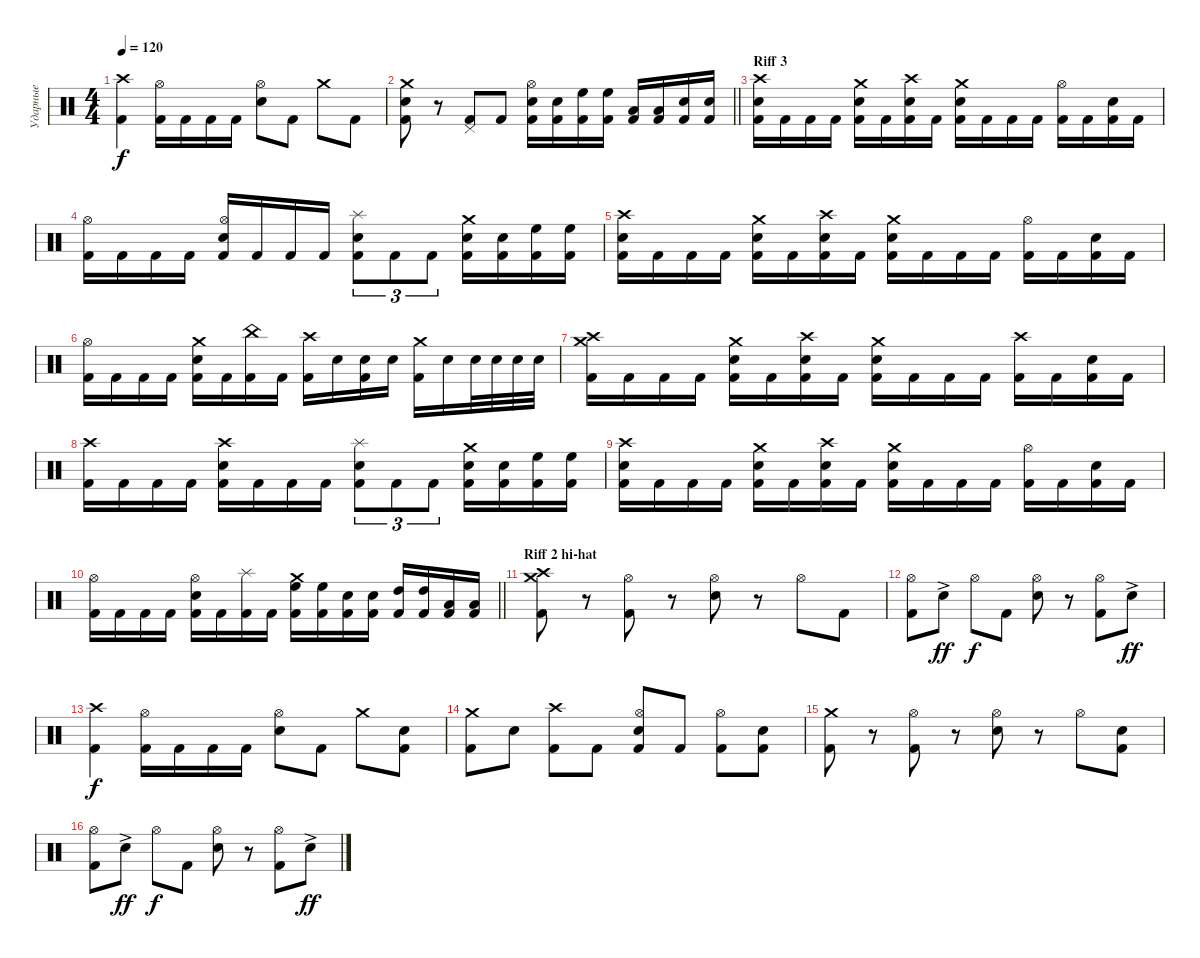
\track ("Ударные" "Ударные") {instrument percussion}
\staff {score}
\articulation defaults
\ts (4 4)
\tempo 120
\clef neutral
\ks c
("Crash high (hit)" "Kick (hit) 2").4{dy f} ("Hi-Hat (open)" "Kick (hit) 2").16 "Kick (hit) 2".16 "Kick (hit) 2".16 "Kick (hit) 2".16 ("Hi-Hat (open)" "Electric Snare (hit)").8 "Kick (hit) 2".8 "Crash medium (hit)".8 "Kick (hit) 2".8 |
\barLineRight lightlight
("Crash medium (hit)" "Electric Snare (hit)" "Kick (hit) 2").8 r.8 ("Pedal Hi-Hat (hit)" "Kick (hit) 2").8 "Kick (hit) 2".8 ("Hi-Hat (open)" "Electric Snare (hit)" "Kick (hit) 2").16 ("Electric Snare (hit)" "Kick (hit) 2").16 ("High Floor Tom (hit)" "Kick (hit) 2").16 ("High Floor Tom (hit)" "Kick (hit) 2").16 ("Low Tom (hit)" "Kick (hit) 2").16 ("Low Tom (hit)" "Kick (hit) 2").16 ("Electric Snare (hit)" "Kick (hit) 2").16 ("Electric Snare (hit)" "Kick (hit) 2").16 |
\section ("" "Riff 3 ")
("Crash high (hit)" "Electric Snare (hit)" "Kick (hit) 2").16 "Kick (hit) 2".16 "Kick (hit) 2".16 "Kick (hit) 2".16 ("Crash medium (hit)" "Electric Snare (hit)" "Kick (hit) 2").16 "Kick (hit) 2".16 ("Crash high (hit)" "Electric Snare (hit)" "Kick (hit) 2").16 "Kick (hit) 2".16 ("Crash medium (hit)" "Electric Snare (hit)" "Kick (hit) 2").16 "Kick (hit) 2".16 "Kick (hit) 2".16 "Kick (hit) 2".16 ("Hi-Hat (open)" "Kick (hit) 2").16 "Kick (hit) 2".16 ("Electric Snare (hit)" "Kick (hit) 2").16 "Kick (hit) 2".16 |
("Hi-Hat (open)" "Kick (hit) 2").16 "Kick (hit) 2".16 "Kick (hit) 2".16 "Kick (hit) 2".16 ("Hi-Hat (open)" "Electric Snare (hit)" "Kick (hit) 2").16 "Kick (hit) 2".16 "Kick (hit) 2".16 "Kick (hit) 2".16 ("Splash (hit)" "Electric Snare (hit)" "Kick (hit) 2").8{tu (3 2)} "Kick (hit) 2".8{tu (3 2)} "Kick (hit) 2".8{tu (3 2)} ("Crash medium (hit)" "Electric Snare (hit)" "Kick (hit) 2").16 ("Electric Snare (hit)" "Kick (hit) 2").16 ("High Floor Tom (hit)" "Kick (hit) 2").16 ("High Floor Tom (hit)" "Kick (hit) 2").16 |
("Crash high (hit)" "Electric Snare (hit)" "Kick (hit) 2").16 "Kick (hit) 2".16 "Kick (hit) 2".16 "Kick (hit) 2".16 ("Crash medium (hit)" "Electric Snare (hit)" "Kick (hit) 2").16 "Kick (hit) 2".16 ("Crash high (hit)" "Electric Snare (hit)" "Kick (hit) 2").16 "Kick (hit) 2".16 ("Crash medium (hit)" "Electric Snare (hit)" "Kick (hit) 2").16 "Kick (hit) 2".16 "Kick (hit) 2".16 "Kick (hit) 2".16 ("Hi-Hat (open)" "Kick (hit) 2").16 "Kick (hit) 2".16 ("Electric Snare (hit)" "Kick (hit) 2").16 "Kick (hit) 2".16 |
("Hi-Hat (open)" "Kick (hit) 2").16 "Kick (hit) 2".16 "Kick (hit) 2".16 "Kick (hit) 2".16 ("Crash medium (hit)" "Electric Snare (hit)" "Kick (hit) 2").16 "Kick (hit) 2".16 ("China (hit)" "Kick (hit) 2").16 "Kick (hit) 2".16 ("Crash high (hit)" "Kick (hit) 2").16 "Electric Snare (hit)".16 ("Electric Snare (hit)" "Kick (hit) 2").16 "Electric Snare (hit)".16 ("Crash medium (hit)" "Kick (hit) 2").16 "Electric Snare (hit)".16 "Electric Snare (hit)".32 "Electric Snare (hit)".32 "Electric Snare (hit)".32 "Electric Snare (hit)".32 |
("Crash high (hit)" "Crash medium (hit)" "Kick (hit) 2").16 "Kick (hit) 2".16 "Kick (hit) 2".16 "Kick (hit) 2".16 ("Crash medium (hit)" "Electric Snare (hit)" "Kick (hit) 2").16 "Kick (hit) 2".16 ("Crash high (hit)" "Electric Snare (hit)" "Kick (hit) 2").16 "Kick (hit) 2".16 ("Crash medium (hit)" "Electric Snare (hit)" "Kick (hit) 2").16 "Kick (hit) 2".16 "Kick (hit) 2".16 "Kick (hit) 2".16 ("Crash high (hit)" "Kick (hit) 2").16 "Kick (hit) 2".16 ("Electric Snare (hit)" "Kick (hit) 2").16 "Kick (hit) 2".16 |
("Crash high (hit)" "Kick (hit) 2").16 "Kick (hit) 2".16 "Kick (hit) 2".16 "Kick (hit) 2".16 ("Crash high (hit)" "Electric Snare (hit)" "Kick (hit) 2").16 "Kick (hit) 2".16 "Kick (hit) 2".16 "Kick (hit) 2".16 ("Splash (hit)" "Electric Snare (hit)" "Kick (hit) 2").8{tu (3 2)} "Kick (hit) 2".8{tu (3 2)} "Kick (hit) 2".8{tu (3 2)} ("Crash medium (hit)" "Electric Snare (hit)" "Kick (hit) 2").16 ("Electric Snare (hit)" "Kick (hit) 2").16 ("High Floor Tom (hit)" "Kick (hit) 2").16 ("High Floor Tom (hit)" "Kick (hit) 2").16 |
("Crash high (hit)" "Electric Snare (hit)" "Kick (hit) 2").16 "Kick (hit) 2".16 "Kick (hit) 2".16 "Kick (hit) 2".16 ("Crash medium (hit)" "Electric Snare (hit)" "Kick (hit) 2").16 "Kick (hit) 2".16 ("Crash high (hit)" "Electric Snare (hit)" "Kick (hit) 2").16 "Kick (hit) 2".16 ("Crash medium (hit)" "Electric Snare (hit)" "Kick (hit) 2").16 "Kick (hit) 2".16 "Kick (hit) 2".16 "Kick (hit) 2".16 ("Hi-Hat (open)" "Kick (hit) 2").16 "Kick (hit) 2".16 ("Electric Snare (hit)" "Kick (hit) 2").16 "Kick (hit) 2".16 |
\barLineRight lightlight
("Hi-Hat (open)" "Kick (hit) 2").16 "Kick (hit) 2".16 "Kick (hit) 2".16 "Kick (hit) 2".16 ("Hi-Hat (open)" "Electric Snare (hit)" "Kick (hit) 2").16 "Kick (hit) 2".16 ("Splash (hit)" "Kick (hit) 2").16 "Kick (hit) 2".16 ("Crash medium (hit)" "High Floor Tom (hit)" "Kick (hit) 2").16 ("High Floor Tom (hit)" "Kick (hit) 2").16 ("Electric Snare (hit)" "Kick (hit) 2").16 ("Electric Snare (hit)" "Kick (hit) 2").16 ("High Tom (hit)" "Kick (hit) 2").16 ("High Tom (hit)" "Kick (hit) 2").16 ("Low Tom (hit)" "Kick (hit) 2").16 ("Low Tom (hit)" "Kick (hit) 2").16 |
\section ("" "Riff 2 hi-hat")
("Crash medium (hit)" "Crash high (hit)" "Kick (hit) 2").8 r.8 ("Hi-Hat (open)" "Kick (hit) 2").8 r.8 ("Hi-Hat (open)" "Electric Snare (hit)").8 r.8 "Hi-Hat (open)".8 "Kick (hit) 2".8 |
("Hi-Hat (open)" "Kick (hit) 2").8 "Electric Snare (hit)"{ac}.8{dy ff} "Hi-Hat (open)".8{dy f} "Kick (hit) 2".8 ("Hi-Hat (open)" "Electric Snare (hit)").8 r.8 ("Hi-Hat (open)" "Kick (hit) 2").8 "Electric Snare (hit)"{ac}.8{dy ff} |
("Crash high (hit)" "Kick (hit) 2").4{dy f} ("Hi-Hat (open)" "Kick (hit) 2").16 "Kick (hit) 2".16 "Kick (hit) 2".16 "Kick (hit) 2".16 ("Hi-Hat (open)" "Electric Snare (hit)").8 "Kick (hit) 2".8 "Crash medium (hit)".8 ("Electric Snare (hit)" "Kick (hit) 2").8 |
("Crash medium (hit)" "Kick (hit) 2").8 "Electric Snare (hit)".8 ("Crash high (hit)" "Kick (hit) 2").8 "Kick (hit) 2".8 ("Hi-Hat (open)" "Electric Snare (hit)" "Kick (hit) 2").8 "Kick (hit) 2".8 ("Hi-Hat (open)" "Kick (hit) 2").8 ("Electric Snare (hit)" "Kick (hit) 2").8 |
("Crash medium (hit)" "Kick (hit) 2").8 r.8 ("Hi-Hat (open)" "Kick (hit) 2").8 r.8 ("Hi-Hat (open)" "Electric Snare (hit)").8 r.8 "Hi-Hat (open)".8 ("Electric Snare (hit)" "Kick (hit) 2").8 |
("Hi-Hat (open)" "Kick (hit) 2").8 "Electric Snare (hit)"{ac}.8{dy ff} "Hi-Hat (open)".8{dy f} "Kick (hit) 2".8 ("Hi-Hat (open)" "Electric Snare (hit)").8 r.8 ("Hi-Hat (open)" "Kick (hit) 2").8 "Electric Snare (hit)"{ac}.8{dy ff}
